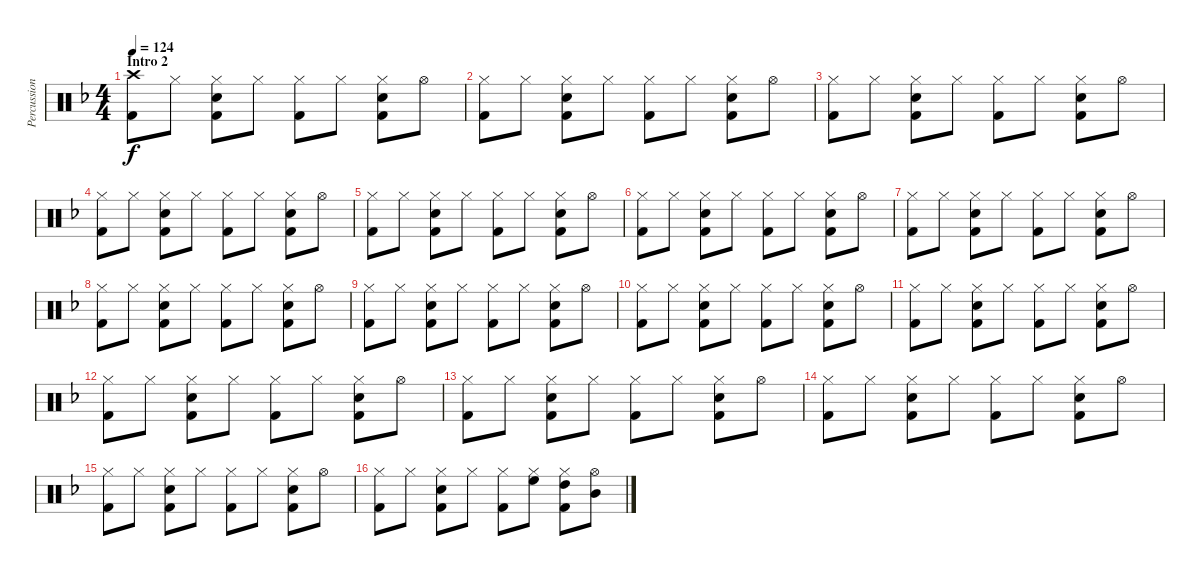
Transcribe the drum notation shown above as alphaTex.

\track ("Percussion" "Percussion") {instrument percussion}
\staff {score}
\articulation defaults
\ts (4 4)
\section ("" "Intro 2")
\tempo 124
\clef neutral
\ks f
("Crash high (hit)" "Kick (hit) 2").8{dy f} "Hi-Hat (closed)".8 ("Hi-Hat (closed)" "Electric Snare (hit)" "Kick (hit) 2").8 "Hi-Hat (closed)".8 ("Hi-Hat (closed)" "Kick (hit) 2").8 "Hi-Hat (closed)".8 ("Hi-Hat (closed)" "Electric Snare (hit)" "Kick (hit) 2").8 "Hi-Hat (open)".8 |
("Hi-Hat (closed)" "Kick (hit) 2").8 "Hi-Hat (closed)".8 ("Hi-Hat (closed)" "Electric Snare (hit)" "Kick (hit) 2").8 "Hi-Hat (closed)".8 ("Hi-Hat (closed)" "Kick (hit) 2").8 "Hi-Hat (closed)".8 ("Hi-Hat (closed)" "Electric Snare (hit)" "Kick (hit) 2").8 "Hi-Hat (open)".8 |
("Hi-Hat (closed)" "Kick (hit) 2").8 "Hi-Hat (closed)".8 ("Hi-Hat (closed)" "Electric Snare (hit)" "Kick (hit) 2").8 "Hi-Hat (closed)".8 ("Hi-Hat (closed)" "Kick (hit) 2").8 "Hi-Hat (closed)".8 ("Hi-Hat (closed)" "Electric Snare (hit)" "Kick (hit) 2").8 "Hi-Hat (open)".8 |
("Hi-Hat (closed)" "Kick (hit) 2").8 "Hi-Hat (closed)".8 ("Hi-Hat (closed)" "Electric Snare (hit)" "Kick (hit) 2").8 "Hi-Hat (closed)".8 ("Hi-Hat (closed)" "Kick (hit) 2").8 "Hi-Hat (closed)".8 ("Hi-Hat (closed)" "Electric Snare (hit)" "Kick (hit) 2").8 "Hi-Hat (open)".8 |
("Hi-Hat (closed)" "Kick (hit) 2").8 "Hi-Hat (closed)".8 ("Hi-Hat (closed)" "Electric Snare (hit)" "Kick (hit) 2").8 "Hi-Hat (closed)".8 ("Hi-Hat (closed)" "Kick (hit) 2").8 "Hi-Hat (closed)".8 ("Hi-Hat (closed)" "Electric Snare (hit)" "Kick (hit) 2").8 "Hi-Hat (open)".8 |
("Hi-Hat (closed)" "Kick (hit) 2").8 "Hi-Hat (closed)".8 ("Hi-Hat (closed)" "Electric Snare (hit)" "Kick (hit) 2").8 "Hi-Hat (closed)".8 ("Hi-Hat (closed)" "Kick (hit) 2").8 "Hi-Hat (closed)".8 ("Hi-Hat (closed)" "Electric Snare (hit)" "Kick (hit) 2").8 "Hi-Hat (open)".8 |
("Hi-Hat (closed)" "Kick (hit) 2").8 "Hi-Hat (closed)".8 ("Hi-Hat (closed)" "Electric Snare (hit)" "Kick (hit) 2").8 "Hi-Hat (closed)".8 ("Hi-Hat (closed)" "Kick (hit) 2").8 "Hi-Hat (closed)".8 ("Hi-Hat (closed)" "Electric Snare (hit)" "Kick (hit) 2").8 "Hi-Hat (open)".8 |
("Hi-Hat (closed)" "Kick (hit) 2").8 "Hi-Hat (closed)".8 ("Hi-Hat (closed)" "Electric Snare (hit)" "Kick (hit) 2").8 "Hi-Hat (closed)".8 ("Hi-Hat (closed)" "Kick (hit) 2").8 "Hi-Hat (closed)".8 ("Hi-Hat (closed)" "Electric Snare (hit)" "Kick (hit) 2").8 "Hi-Hat (open)".8 |
("Hi-Hat (closed)" "Kick (hit) 2").8 "Hi-Hat (closed)".8 ("Hi-Hat (closed)" "Electric Snare (hit)" "Kick (hit) 2").8 "Hi-Hat (closed)".8 ("Hi-Hat (closed)" "Kick (hit) 2").8 "Hi-Hat (closed)".8 ("Hi-Hat (closed)" "Electric Snare (hit)" "Kick (hit) 2").8 "Hi-Hat (open)".8 |
("Hi-Hat (closed)" "Kick (hit) 2").8 "Hi-Hat (closed)".8 ("Hi-Hat (closed)" "Electric Snare (hit)" "Kick (hit) 2").8 "Hi-Hat (closed)".8 ("Hi-Hat (closed)" "Kick (hit) 2").8 "Hi-Hat (closed)".8 ("Hi-Hat (closed)" "Electric Snare (hit)" "Kick (hit) 2").8 "Hi-Hat (open)".8 |
("Hi-Hat (closed)" "Kick (hit) 2").8 "Hi-Hat (closed)".8 ("Hi-Hat (closed)" "Electric Snare (hit)" "Kick (hit) 2").8 "Hi-Hat (closed)".8 ("Hi-Hat (closed)" "Kick (hit) 2").8 "Hi-Hat (closed)".8 ("Hi-Hat (closed)" "Electric Snare (hit)" "Kick (hit) 2").8 "Hi-Hat (open)".8 |
("Hi-Hat (closed)" "Kick (hit) 2").8 "Hi-Hat (closed)".8 ("Hi-Hat (closed)" "Electric Snare (hit)" "Kick (hit) 2").8 "Hi-Hat (closed)".8 ("Hi-Hat (closed)" "Kick (hit) 2").8 "Hi-Hat (closed)".8 ("Hi-Hat (closed)" "Electric Snare (hit)" "Kick (hit) 2").8 "Hi-Hat (open)".8 |
("Hi-Hat (closed)" "Kick (hit) 2").8 "Hi-Hat (closed)".8 ("Hi-Hat (closed)" "Electric Snare (hit)" "Kick (hit) 2").8 "Hi-Hat (closed)".8 ("Hi-Hat (closed)" "Kick (hit) 2").8 "Hi-Hat (closed)".8 ("Hi-Hat (closed)" "Electric Snare (hit)" "Kick (hit) 2").8 "Hi-Hat (open)".8 |
("Hi-Hat (closed)" "Kick (hit) 2").8 "Hi-Hat (closed)".8 ("Hi-Hat (closed)" "Electric Snare (hit)" "Kick (hit) 2").8 "Hi-Hat (closed)".8 ("Hi-Hat (closed)" "Kick (hit) 2").8 "Hi-Hat (closed)".8 ("Hi-Hat (closed)" "Electric Snare (hit)" "Kick (hit) 2").8 "Hi-Hat (open)".8 |
("Hi-Hat (closed)" "Kick (hit) 2").8 "Hi-Hat (closed)".8 ("Hi-Hat (closed)" "Electric Snare (hit)" "Kick (hit) 2").8 "Hi-Hat (closed)".8 ("Hi-Hat (closed)" "Kick (hit) 2").8 "Hi-Hat (closed)".8 ("Hi-Hat (closed)" "Electric Snare (hit)" "Kick (hit) 2").8 "Hi-Hat (open)".8 |
("Hi-Hat (closed)" "Kick (hit) 2").8 "Hi-Hat (closed)".8 ("Hi-Hat (closed)" "Electric Snare (hit)" "Kick (hit) 2").8 "Hi-Hat (closed)".8 ("Hi-Hat (closed)" "Kick (hit) 2").8 ("Hi-Hat (closed)" "High Floor Tom (hit)").8 ("Hi-Hat (closed)" "High Tom (hit)" "Kick (hit) 2").8 ("Hi-Hat (open)" "Mid Tom (hit)").8
